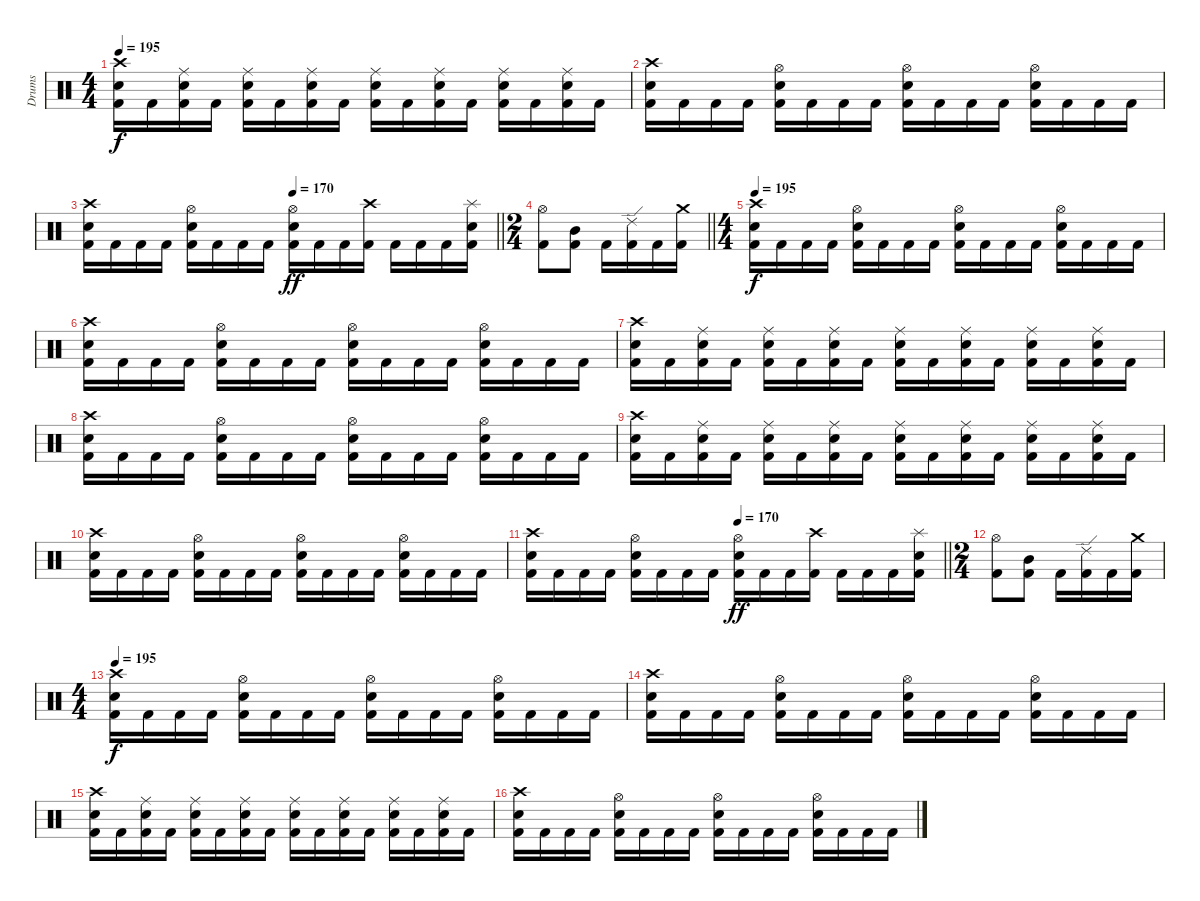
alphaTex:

\track ("Drums" "Drums") {instrument percussion}
\staff {score}
\articulation defaults
\ts (4 4)
\tempo 195
\clef neutral
\ks c
("Kick (hit) 2" "Electric Snare (hit)" "Crash high (hit)").16{dy f} "Kick (hit) 2".16 ("Kick (hit) 2" "Electric Snare (hit)" "Ride (middle)").16 "Kick (hit) 2".16 ("Kick (hit) 2" "Electric Snare (hit)" "Ride (middle)").16 "Kick (hit) 2".16 ("Kick (hit) 2" "Electric Snare (hit)" "Ride (middle)").16 "Kick (hit) 2".16 ("Kick (hit) 2" "Electric Snare (hit)" "Ride (middle)").16 "Kick (hit) 2".16 ("Kick (hit) 2" "Electric Snare (hit)" "Ride (middle)").16 "Kick (hit) 2".16 ("Kick (hit) 2" "Electric Snare (hit)" "Ride (middle)").16 "Kick (hit) 2".16 ("Kick (hit) 2" "Electric Snare (hit)" "Ride (middle)").16 "Kick (hit) 2".16 |
("Kick (hit) 2" "Crash high (hit)" "Electric Snare (hit)").16 "Kick (hit) 2".16 "Kick (hit) 2".16 "Kick (hit) 2".16 ("Kick (hit) 2" "Electric Snare (hit)" "Hi-Hat (open)").16 "Kick (hit) 2".16 "Kick (hit) 2".16 "Kick (hit) 2".16 ("Kick (hit) 2" "Electric Snare (hit)" "Hi-Hat (open)").16 "Kick (hit) 2".16 "Kick (hit) 2".16 "Kick (hit) 2".16 ("Kick (hit) 2" "Electric Snare (hit)" "Hi-Hat (open)").16 "Kick (hit) 2".16 "Kick (hit) 2".16 "Kick (hit) 2".16 |
\tempo (170 0.5)
\barLineRight lightlight
("Kick (hit) 2" "Crash high (hit)" "Electric Snare (hit)").16 "Kick (hit) 2".16 "Kick (hit) 2".16 "Kick (hit) 2".16 ("Kick (hit) 2" "Electric Snare (hit)" "Hi-Hat (open)").16 "Kick (hit) 2".16 "Kick (hit) 2".16 "Kick (hit) 2".16 ("Kick (hit) 2" "Electric Snare (hit)" "Hi-Hat (open)").16{dy ff} "Kick (hit) 2".16 "Kick (hit) 2".16 ("Kick (hit) 2" "Crash high (hit)").16 "Kick (hit) 2".16 "Kick (hit) 2".16 "Kick (hit) 2".16 ("Kick (hit) 2" "Electric Snare (hit)" "Splash (hit)").16 |
\ts (2 4)
\barLineRight lightlight
("Kick (hit) 2" "Hi-Hat (open)").8 ("Kick (hit) 2" "Mid Tom (hit)").8 "Kick (hit) 2".16 ("Kick (hit) 2" "Ride (edge) 2").16 "Kick (hit) 2".16 ("Kick (hit) 2" "Crash medium (hit)").16 |
\ts (4 4)
\tempo 195
("Kick (hit) 2" "Crash high (hit)" "Electric Snare (hit)").16{dy f} "Kick (hit) 2".16 "Kick (hit) 2".16 "Kick (hit) 2".16 ("Kick (hit) 2" "Electric Snare (hit)" "Hi-Hat (open)").16 "Kick (hit) 2".16 "Kick (hit) 2".16 "Kick (hit) 2".16 ("Kick (hit) 2" "Electric Snare (hit)" "Hi-Hat (open)").16 "Kick (hit) 2".16 "Kick (hit) 2".16 "Kick (hit) 2".16 ("Kick (hit) 2" "Electric Snare (hit)" "Hi-Hat (open)").16 "Kick (hit) 2".16 "Kick (hit) 2".16 "Kick (hit) 2".16 |
("Kick (hit) 2" "Crash high (hit)" "Electric Snare (hit)").16 "Kick (hit) 2".16 "Kick (hit) 2".16 "Kick (hit) 2".16 ("Kick (hit) 2" "Electric Snare (hit)" "Hi-Hat (open)").16 "Kick (hit) 2".16 "Kick (hit) 2".16 "Kick (hit) 2".16 ("Kick (hit) 2" "Electric Snare (hit)" "Hi-Hat (open)").16 "Kick (hit) 2".16 "Kick (hit) 2".16 "Kick (hit) 2".16 ("Kick (hit) 2" "Electric Snare (hit)" "Hi-Hat (open)").16 "Kick (hit) 2".16 "Kick (hit) 2".16 "Kick (hit) 2".16 |
("Kick (hit) 2" "Electric Snare (hit)" "Crash high (hit)").16 "Kick (hit) 2".16 ("Kick (hit) 2" "Electric Snare (hit)" "Ride (middle)").16 "Kick (hit) 2".16 ("Kick (hit) 2" "Electric Snare (hit)" "Ride (middle)").16 "Kick (hit) 2".16 ("Kick (hit) 2" "Electric Snare (hit)" "Ride (middle)").16 "Kick (hit) 2".16 ("Kick (hit) 2" "Electric Snare (hit)" "Ride (middle)").16 "Kick (hit) 2".16 ("Kick (hit) 2" "Electric Snare (hit)" "Ride (middle)").16 "Kick (hit) 2".16 ("Kick (hit) 2" "Electric Snare (hit)" "Ride (middle)").16 "Kick (hit) 2".16 ("Kick (hit) 2" "Electric Snare (hit)" "Ride (middle)").16 "Kick (hit) 2".16 |
("Kick (hit) 2" "Crash high (hit)" "Electric Snare (hit)").16 "Kick (hit) 2".16 "Kick (hit) 2".16 "Kick (hit) 2".16 ("Kick (hit) 2" "Electric Snare (hit)" "Hi-Hat (open)").16 "Kick (hit) 2".16 "Kick (hit) 2".16 "Kick (hit) 2".16 ("Kick (hit) 2" "Electric Snare (hit)" "Hi-Hat (open)").16 "Kick (hit) 2".16 "Kick (hit) 2".16 "Kick (hit) 2".16 ("Kick (hit) 2" "Electric Snare (hit)" "Hi-Hat (open)").16 "Kick (hit) 2".16 "Kick (hit) 2".16 "Kick (hit) 2".16 |
("Kick (hit) 2" "Electric Snare (hit)" "Crash high (hit)").16 "Kick (hit) 2".16 ("Kick (hit) 2" "Electric Snare (hit)" "Ride (middle)").16 "Kick (hit) 2".16 ("Kick (hit) 2" "Electric Snare (hit)" "Ride (middle)").16 "Kick (hit) 2".16 ("Kick (hit) 2" "Electric Snare (hit)" "Ride (middle)").16 "Kick (hit) 2".16 ("Kick (hit) 2" "Electric Snare (hit)" "Ride (middle)").16 "Kick (hit) 2".16 ("Kick (hit) 2" "Electric Snare (hit)" "Ride (middle)").16 "Kick (hit) 2".16 ("Kick (hit) 2" "Electric Snare (hit)" "Ride (middle)").16 "Kick (hit) 2".16 ("Kick (hit) 2" "Electric Snare (hit)" "Ride (middle)").16 "Kick (hit) 2".16 |
("Kick (hit) 2" "Crash high (hit)" "Electric Snare (hit)").16 "Kick (hit) 2".16 "Kick (hit) 2".16 "Kick (hit) 2".16 ("Kick (hit) 2" "Electric Snare (hit)" "Hi-Hat (open)").16 "Kick (hit) 2".16 "Kick (hit) 2".16 "Kick (hit) 2".16 ("Kick (hit) 2" "Electric Snare (hit)" "Hi-Hat (open)").16 "Kick (hit) 2".16 "Kick (hit) 2".16 "Kick (hit) 2".16 ("Kick (hit) 2" "Electric Snare (hit)" "Hi-Hat (open)").16 "Kick (hit) 2".16 "Kick (hit) 2".16 "Kick (hit) 2".16 |
\tempo (170 0.5)
\barLineRight lightlight
("Kick (hit) 2" "Crash high (hit)" "Electric Snare (hit)").16 "Kick (hit) 2".16 "Kick (hit) 2".16 "Kick (hit) 2".16 ("Kick (hit) 2" "Electric Snare (hit)" "Hi-Hat (open)").16 "Kick (hit) 2".16 "Kick (hit) 2".16 "Kick (hit) 2".16 ("Kick (hit) 2" "Electric Snare (hit)" "Hi-Hat (open)").16{dy ff} "Kick (hit) 2".16 "Kick (hit) 2".16 ("Kick (hit) 2" "Crash high (hit)").16 "Kick (hit) 2".16 "Kick (hit) 2".16 "Kick (hit) 2".16 ("Kick (hit) 2" "Electric Snare (hit)" "Splash (hit)").16 |
\ts (2 4)
("Kick (hit) 2" "Hi-Hat (open)").8 ("Kick (hit) 2" "Mid Tom (hit)").8 "Kick (hit) 2".16 ("Kick (hit) 2" "Ride (edge) 2").16 "Kick (hit) 2".16 ("Kick (hit) 2" "Crash medium (hit)").16 |
\ts (4 4)
\tempo 195
("Kick (hit) 2" "Crash high (hit)" "Electric Snare (hit)").16{dy f} "Kick (hit) 2".16 "Kick (hit) 2".16 "Kick (hit) 2".16 ("Kick (hit) 2" "Electric Snare (hit)" "Hi-Hat (open)").16 "Kick (hit) 2".16 "Kick (hit) 2".16 "Kick (hit) 2".16 ("Kick (hit) 2" "Electric Snare (hit)" "Hi-Hat (open)").16 "Kick (hit) 2".16 "Kick (hit) 2".16 "Kick (hit) 2".16 ("Kick (hit) 2" "Electric Snare (hit)" "Hi-Hat (open)").16 "Kick (hit) 2".16 "Kick (hit) 2".16 "Kick (hit) 2".16 |
("Kick (hit) 2" "Crash high (hit)" "Electric Snare (hit)").16 "Kick (hit) 2".16 "Kick (hit) 2".16 "Kick (hit) 2".16 ("Kick (hit) 2" "Electric Snare (hit)" "Hi-Hat (open)").16 "Kick (hit) 2".16 "Kick (hit) 2".16 "Kick (hit) 2".16 ("Kick (hit) 2" "Electric Snare (hit)" "Hi-Hat (open)").16 "Kick (hit) 2".16 "Kick (hit) 2".16 "Kick (hit) 2".16 ("Kick (hit) 2" "Electric Snare (hit)" "Hi-Hat (open)").16 "Kick (hit) 2".16 "Kick (hit) 2".16 "Kick (hit) 2".16 |
("Kick (hit) 2" "Electric Snare (hit)" "Crash high (hit)").16 "Kick (hit) 2".16 ("Kick (hit) 2" "Electric Snare (hit)" "Ride (middle)").16 "Kick (hit) 2".16 ("Kick (hit) 2" "Electric Snare (hit)" "Ride (middle)").16 "Kick (hit) 2".16 ("Kick (hit) 2" "Electric Snare (hit)" "Ride (middle)").16 "Kick (hit) 2".16 ("Kick (hit) 2" "Electric Snare (hit)" "Ride (middle)").16 "Kick (hit) 2".16 ("Kick (hit) 2" "Electric Snare (hit)" "Ride (middle)").16 "Kick (hit) 2".16 ("Kick (hit) 2" "Electric Snare (hit)" "Ride (middle)").16 "Kick (hit) 2".16 ("Kick (hit) 2" "Electric Snare (hit)" "Ride (middle)").16 "Kick (hit) 2".16 |
("Kick (hit) 2" "Crash high (hit)" "Electric Snare (hit)").16 "Kick (hit) 2".16 "Kick (hit) 2".16 "Kick (hit) 2".16 ("Kick (hit) 2" "Electric Snare (hit)" "Hi-Hat (open)").16 "Kick (hit) 2".16 "Kick (hit) 2".16 "Kick (hit) 2".16 ("Kick (hit) 2" "Electric Snare (hit)" "Hi-Hat (open)").16 "Kick (hit) 2".16 "Kick (hit) 2".16 "Kick (hit) 2".16 ("Kick (hit) 2" "Electric Snare (hit)" "Hi-Hat (open)").16 "Kick (hit) 2".16 "Kick (hit) 2".16 "Kick (hit) 2".16
